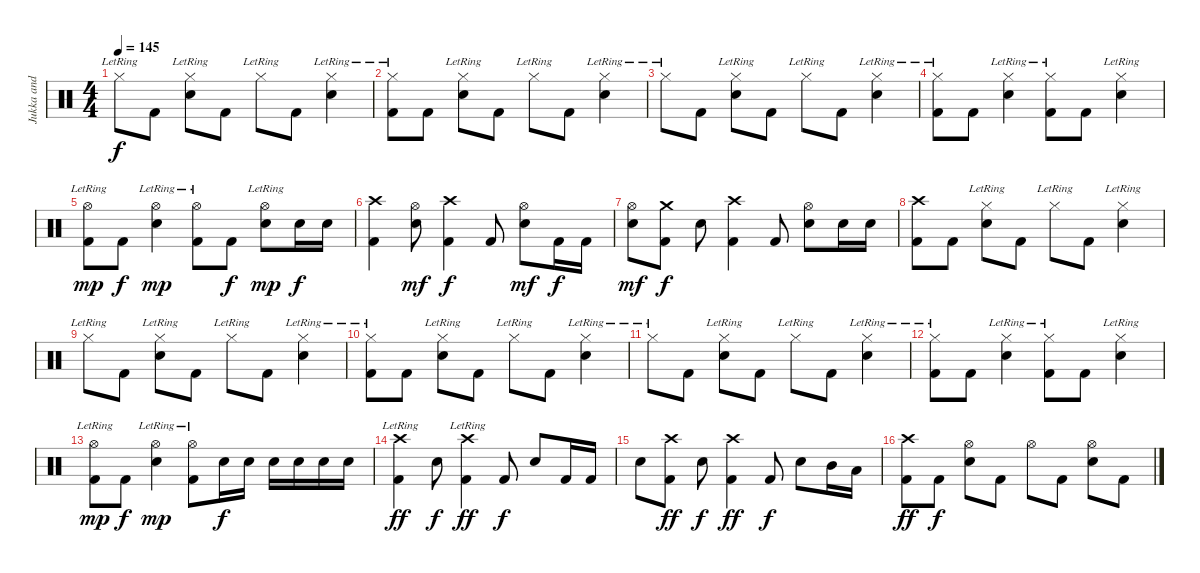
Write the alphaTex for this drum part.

\track ("Jukka and his drums" "Jukka and ") {instrument percussion}
\staff {score}
\articulation defaults
\ts (4 4)
\tempo 145
\clef neutral
\ks c "Hi-Hat (closed)"{lr}.8{dy f} "Kick (hit) 2".8
("Hi-Hat (closed)"{lr} "Snare (hit) 2").8 "Kick (hit) 2".8 "Hi-Hat (closed)"{lr}.8 "Kick (hit) 2".8 ("Hi-Hat (closed)"{lr} "Snare (hit) 2").4 |
("Kick (hit) 2" "Hi-Hat (closed)"{lr}).8 "Kick (hit) 2".8 ("Hi-Hat (closed)"{lr} "Snare (hit) 2").8 "Kick (hit) 2".8 "Hi-Hat (closed)"{lr}.8 "Kick (hit) 2".8 ("Hi-Hat (closed)"{lr} "Snare (hit) 2").4 |
"Hi-Hat (closed)"{lr}.8 "Kick (hit) 2".8 ("Hi-Hat (closed)"{lr} "Snare (hit) 2").8 "Kick (hit) 2".8 "Hi-Hat (closed)"{lr}.8 "Kick (hit) 2".8 ("Hi-Hat (closed)"{lr} "Snare (hit) 2").4 |
("Kick (hit) 2" "Hi-Hat (closed)"{lr}).8 "Kick (hit) 2".8 ("Hi-Hat (closed)"{lr} "Snare (hit) 2").4 ("Kick (hit) 2" "Hi-Hat (closed)"{lr}).8 "Kick (hit) 2".8 ("Hi-Hat (closed)"{lr} "Snare (hit) 2").4 |
("Kick (hit) 2" "Hi-Hat (open)"{lr}).8{dy mp} "Kick (hit) 2".8{dy f} ("Hi-Hat (open)"{lr} "Snare (hit) 2").4{dy mp} ("Kick (hit) 2" "Hi-Hat (open)"{lr}).8 "Kick (hit) 2".8{dy f} ("Hi-Hat (open)"{lr} "Snare (hit) 2").8{dy mp} "Snare (hit) 2".16{dy f} "Snare (hit) 2".16 |
("Kick (hit) 2" "Crash high (hit)").4 ("Hi-Hat (open)" "Snare (hit) 2").8{dy mf} ("Kick (hit) 2" "Crash high (hit)").4{dy f} "Kick (hit) 2".8 ("Hi-Hat (open)" "Snare (hit) 2").8{dy mf} "Kick (hit) 2".16{dy f} "Kick (hit) 2".16 |
("Hi-Hat (open)" "Snare (hit) 2").8{dy mf} ("Kick (hit) 2" "Crash medium (hit)").8{dy f} "Snare (hit) 2".8 ("Kick (hit) 2" "Crash high (hit)").4 "Kick (hit) 2".8 ("Hi-Hat (open)" "Snare (hit) 2").8 "Snare (hit) 2".16 "Snare (hit) 2".16 |
("Kick (hit) 2" "Crash high (hit)").8 "Kick (hit) 2".8 ("Hi-Hat (closed)"{lr} "Snare (hit) 2").8 "Kick (hit) 2".8 "Hi-Hat (closed)"{lr}.8 "Kick (hit) 2".8 ("Hi-Hat (closed)"{lr} "Snare (hit) 2").4 |
"Hi-Hat (closed)"{lr}.8 "Kick (hit) 2".8 ("Hi-Hat (closed)"{lr} "Snare (hit) 2").8 "Kick (hit) 2".8 "Hi-Hat (closed)"{lr}.8 "Kick (hit) 2".8 ("Hi-Hat (closed)"{lr} "Snare (hit) 2").4 |
("Kick (hit) 2" "Hi-Hat (closed)"{lr}).8 "Kick (hit) 2".8 ("Hi-Hat (closed)"{lr} "Snare (hit) 2").8 "Kick (hit) 2".8 "Hi-Hat (closed)"{lr}.8 "Kick (hit) 2".8 ("Hi-Hat (closed)"{lr} "Snare (hit) 2").4 |
"Hi-Hat (closed)"{lr}.8 "Kick (hit) 2".8 ("Hi-Hat (closed)"{lr} "Snare (hit) 2").8 "Kick (hit) 2".8 "Hi-Hat (closed)"{lr}.8 "Kick (hit) 2".8 ("Hi-Hat (closed)"{lr} "Snare (hit) 2").4 |
("Kick (hit) 2" "Hi-Hat (closed)"{lr}).8 "Kick (hit) 2".8 ("Hi-Hat (closed)"{lr} "Snare (hit) 2").4 ("Kick (hit) 2" "Hi-Hat (closed)"{lr}).8 "Kick (hit) 2".8 ("Hi-Hat (closed)"{lr} "Snare (hit) 2").4 |
("Kick (hit) 2" "Hi-Hat (open)"{lr}).8{dy mp} "Kick (hit) 2".8{dy f} ("Hi-Hat (open)"{lr} "Snare (hit) 2").4{dy mp} ("Kick (hit) 2" "Hi-Hat (open)"{lr}).8 "Snare (hit) 2".16{dy f} "Snare (hit) 2".16 "Snare (hit) 2".16 "Snare (hit) 2".16 "Snare (hit) 2".16 "Snare (hit) 2".16 |
("Kick (hit) 2" "Crash high (hit)"{lr}).4{dy ff} "Snare (hit) 2".8{dy f} ("Kick (hit) 2" "Crash high (hit)"{lr}).4{dy ff} "Kick (hit) 2".8{dy f} "Snare (hit) 2".8 "Kick (hit) 2".16 "Kick (hit) 2".16 |
"Snare (hit) 2".8 ("Kick (hit) 2" "Crash high (hit)").8{dy ff} "Snare (hit) 2".8{dy f} ("Kick (hit) 2" "Crash high (hit)").4{dy ff} "Kick (hit) 2".8{dy f} "Snare (hit) 2".8 "Mid Tom (hit)".16 "Low Tom (hit)".16 |
("Kick (hit) 2" "Crash high (hit)").8{dy ff} "Kick (hit) 2".8{dy f} ("Hi-Hat (open)" "Snare (hit) 2").8 "Kick (hit) 2".8 "Hi-Hat (open)".8 "Kick (hit) 2".8 ("Hi-Hat (open)" "Snare (hit) 2").8 "Kick (hit) 2".8
